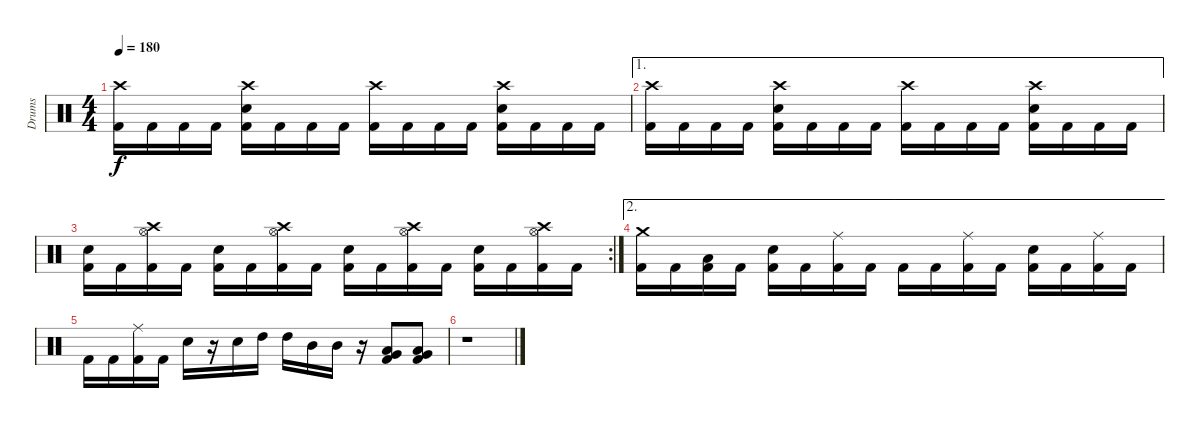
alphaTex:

\track ("Drums" "Drums") {instrument percussion}
\staff {score}
\articulation defaults
\ts (4 4)
\tempo 180
\clef neutral
\ks c
("Crash high (hit)" "Kick (hit) 2").16{dy f} "Kick (hit) 2".16 "Kick (hit) 2".16 "Kick (hit) 2".16 ("Crash high (hit)" "Electric Snare (hit)" "Kick (hit) 2").16 "Kick (hit) 2".16 "Kick (hit) 2".16 "Kick (hit) 2".16 ("Crash high (hit)" "Kick (hit) 2").16 "Kick (hit) 2".16 "Kick (hit) 2".16 "Kick (hit) 2".16 ("Crash high (hit)" "Electric Snare (hit)" "Kick (hit) 2").16 "Kick (hit) 2".16 "Kick (hit) 2".16 "Kick (hit) 2".16 |
\ae 1
("Crash high (hit)" "Kick (hit) 2").16 "Kick (hit) 2".16 "Kick (hit) 2".16 "Kick (hit) 2".16 ("Crash high (hit)" "Electric Snare (hit)" "Kick (hit) 2").16 "Kick (hit) 2".16 "Kick (hit) 2".16 "Kick (hit) 2".16 ("Crash high (hit)" "Kick (hit) 2").16 "Kick (hit) 2".16 "Kick (hit) 2".16 "Kick (hit) 2".16 ("Crash high (hit)" "Electric Snare (hit)" "Kick (hit) 2").16 "Kick (hit) 2".16 "Kick (hit) 2".16 "Kick (hit) 2".16 |
\rc 2
("Electric Snare (hit)" "Kick (hit) 2").16 "Kick (hit) 2".16 ("Hi-Hat (open)" "Crash high (hit)" "Kick (hit) 2").16 "Kick (hit) 2".16 ("Electric Snare (hit)" "Kick (hit) 2").16 "Kick (hit) 2".16 ("Hi-Hat (open)" "Crash high (hit)" "Kick (hit) 2").16 "Kick (hit) 2".16 ("Electric Snare (hit)" "Kick (hit) 2").16 "Kick (hit) 2".16 ("Hi-Hat (open)" "Crash high (hit)" "Kick (hit) 2").16 "Kick (hit) 2".16 ("Electric Snare (hit)" "Kick (hit) 2").16 "Kick (hit) 2".16 ("Hi-Hat (open)" "Crash high (hit)" "Kick (hit) 2").16 "Kick (hit) 2".16 |
\ae 2
("Crash medium (hit)" "Kick (hit) 2").16 "Kick (hit) 2".16 ("Low Floor Tom (hit)" "Kick (hit) 2").16 "Kick (hit) 2".16 ("Electric Snare (hit)" "Kick (hit) 2").16 "Kick (hit) 2".16 ("Ride (middle)" "Kick (hit) 2").16 "Kick (hit) 2".16 "Kick (hit) 2".16 "Kick (hit) 2".16 ("Ride (middle)" "Kick (hit) 2").16 "Kick (hit) 2".16 ("Electric Snare (hit)" "Kick (hit) 2").16 "Kick (hit) 2".16 ("Ride (middle)" "Kick (hit) 2").16 "Kick (hit) 2".16 |
"Kick (hit) 2".16 "Kick (hit) 2".16 ("Ride (middle)" "Kick (hit) 2").16 "Kick (hit) 2".16 "Electric Snare (hit)".16 r.16 "Electric Snare (hit)".16 "High Tom (hit)".16 "High Tom (hit)".16 "Mid Tom (hit)".16 "Mid Tom (hit)".16 r.16 ("Low Floor Tom (hit)" "Very Low Tom (hit)" "Kick (hit) 2").8 ("Low Floor Tom (hit)" "Very Low Tom (hit)" "Kick (hit) 2").8 |
r.1
